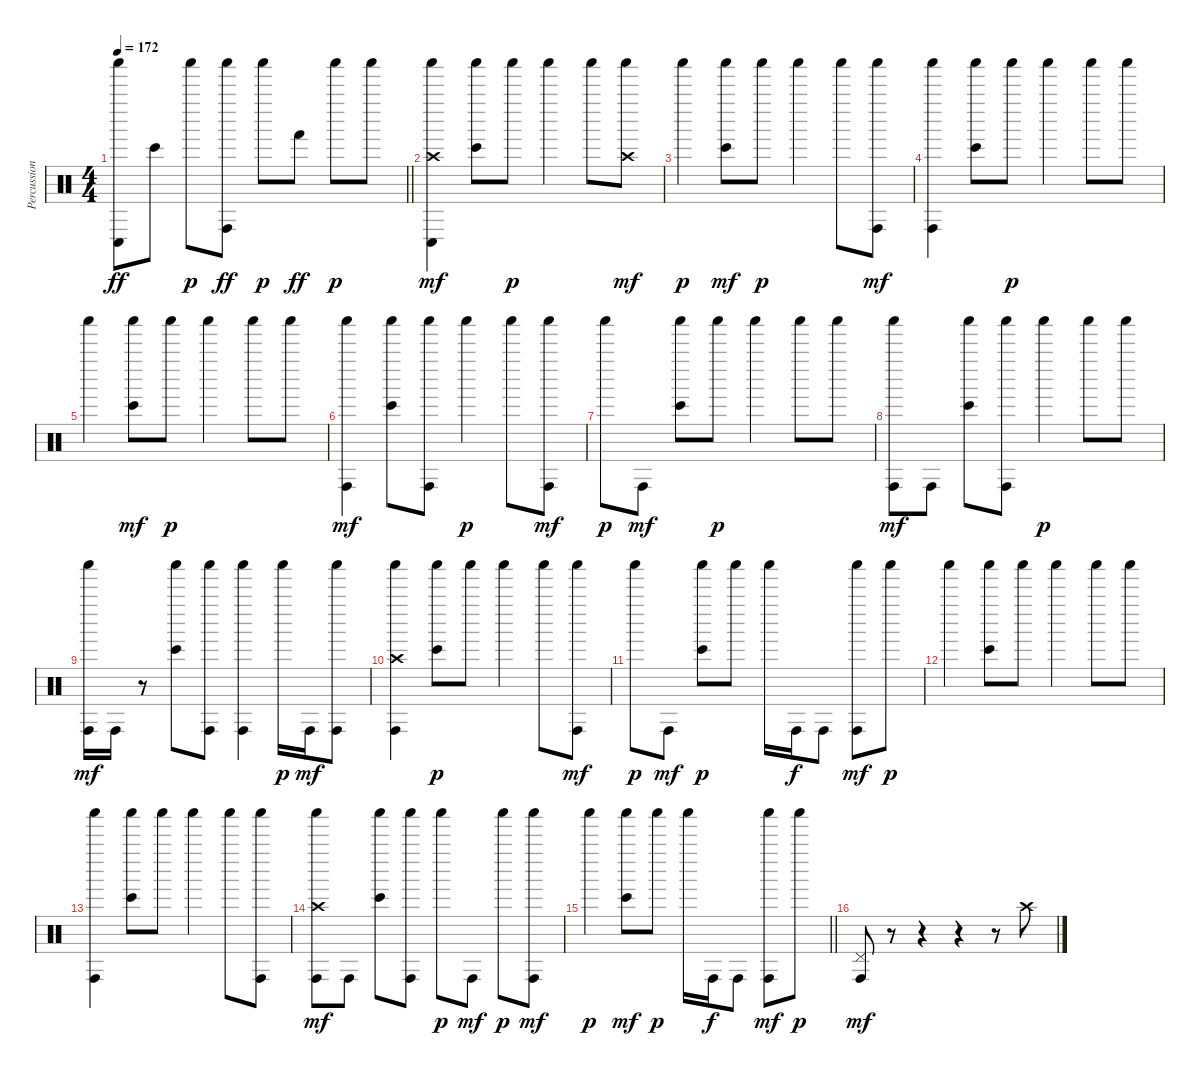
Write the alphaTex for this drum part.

\track ("Percussion" "Percussion") {instrument percussion}
\staff {score}
\articulation defaults
\ts (4 4)
\tempo 172
\clef neutral
\barLineRight lightlight
\ks c
("Shaker (hit)" "Conga low (hit)").8{dy ff} "Bongo High (hit)".8 "Shaker (hit)".8{dy p} ("Shaker (hit)" "Conga high (hit)").8{dy ff} "Shaker (hit)".8{dy p} "Hand (hit)".8{dy ff} "Shaker (hit)".8{dy p} "Shaker (hit)".8 |
("Shaker (hit)" "Crash high (hit)" "Conga low (hit)").4{dy mf} ("Shaker (hit)" "Bongo High (hit)").8 "Shaker (hit)".8{dy p} "Shaker (hit)".4 "Shaker (hit)".8 ("Shaker (hit)" "Crash high (hit)").8{dy mf} |
"Shaker (hit)".4{dy p} ("Shaker (hit)" "Bongo High (hit)").8{dy mf} "Shaker (hit)".8{dy p} "Shaker (hit)".4 "Shaker (hit)".8 ("Shaker (hit)" "Conga high (hit)").8{dy mf} |
("Shaker (hit)" "Conga high (hit)").4 ("Shaker (hit)" "Bongo High (hit)").8 "Shaker (hit)".8{dy p} "Shaker (hit)".4 "Shaker (hit)".8 "Shaker (hit)".8 |
"Shaker (hit)".4 ("Shaker (hit)" "Bongo High (hit)").8{dy mf} "Shaker (hit)".8{dy p} "Shaker (hit)".4 "Shaker (hit)".8 "Shaker (hit)".8 |
("Shaker (hit)" "Conga high (hit)").4{dy mf} ("Shaker (hit)" "Bongo High (hit)").8 ("Shaker (hit)" "Conga high (hit)").8 "Shaker (hit)".4{dy p} "Shaker (hit)".8 ("Shaker (hit)" "Conga high (hit)").8{dy mf} |
"Shaker (hit)".8{dy p} "Conga high (hit)".8{dy mf} ("Shaker (hit)" "Bongo High (hit)").8 "Shaker (hit)".8{dy p} "Shaker (hit)".4 "Shaker (hit)".8 "Shaker (hit)".8 |
("Shaker (hit)" "Conga high (hit)").8{dy mf} "Conga high (hit)".8 ("Shaker (hit)" "Bongo High (hit)").8 ("Shaker (hit)" "Conga high (hit)").8 "Shaker (hit)".4{dy p} "Shaker (hit)".8 "Shaker (hit)".8 |
("Shaker (hit)" "Conga high (hit)").16{dy mf} "Conga high (hit)".16 r.8 ("Shaker (hit)" "Bongo High (hit)").8 ("Shaker (hit)" "Conga high (hit)").8 ("Shaker (hit)" "Conga high (hit)").4 "Shaker (hit)".16{dy p} "Conga high (hit)".16{dy mf} ("Shaker (hit)" "Conga high (hit)").8 |
("Shaker (hit)" "Crash high (hit)" "Conga high (hit)").4 ("Shaker (hit)" "Bongo High (hit)").8{dy p} "Shaker (hit)".8 "Shaker (hit)".4 "Shaker (hit)".8 ("Shaker (hit)" "Conga high (hit)").8{dy mf} |
"Shaker (hit)".8{dy p} "Conga high (hit)".8{dy mf} ("Shaker (hit)" "Bongo High (hit)").8{dy p} "Shaker (hit)".8 "Shaker (hit)".16 "Conga high (hit)".16{dy f} "Conga high (hit)".8 ("Shaker (hit)" "Conga high (hit)").8{dy mf} "Shaker (hit)".8{dy p} |
"Shaker (hit)".4 ("Shaker (hit)" "Bongo High (hit)").8 "Shaker (hit)".8 "Shaker (hit)".4 "Shaker (hit)".8 "Shaker (hit)".8 |
("Shaker (hit)" "Conga high (hit)").4 ("Shaker (hit)" "Bongo High (hit)").8 "Shaker (hit)".8 "Shaker (hit)".4 "Shaker (hit)".8 ("Shaker (hit)" "Conga high (hit)").8 |
("Shaker (hit)" "Crash high (hit)" "Conga high (hit)").8{dy mf} "Conga high (hit)".8 ("Shaker (hit)" "Bongo High (hit)").8 ("Shaker (hit)" "Conga high (hit)").8 "Shaker (hit)".8{dy p} "Conga high (hit)".8{dy mf} "Shaker (hit)".8{dy p} ("Shaker (hit)" "Conga high (hit)").8{dy mf} |
\barLineRight lightlight "Shaker (hit)".4{dy p}
("Shaker (hit)" "Bongo High (hit)").8{dy mf} "Shaker (hit)".8{dy p} "Shaker (hit)".16 "Conga high (hit)".16{dy f} "Conga high (hit)".8 ("Shaker (hit)" "Conga high (hit)").8{dy mf} "Shaker (hit)".8{dy p} |
("Pedal Hi-Hat (hit)" "Conga high (hit)").8{dy mf} r.8 r.4 r.4 r.8 "Crash high (hit)".8
